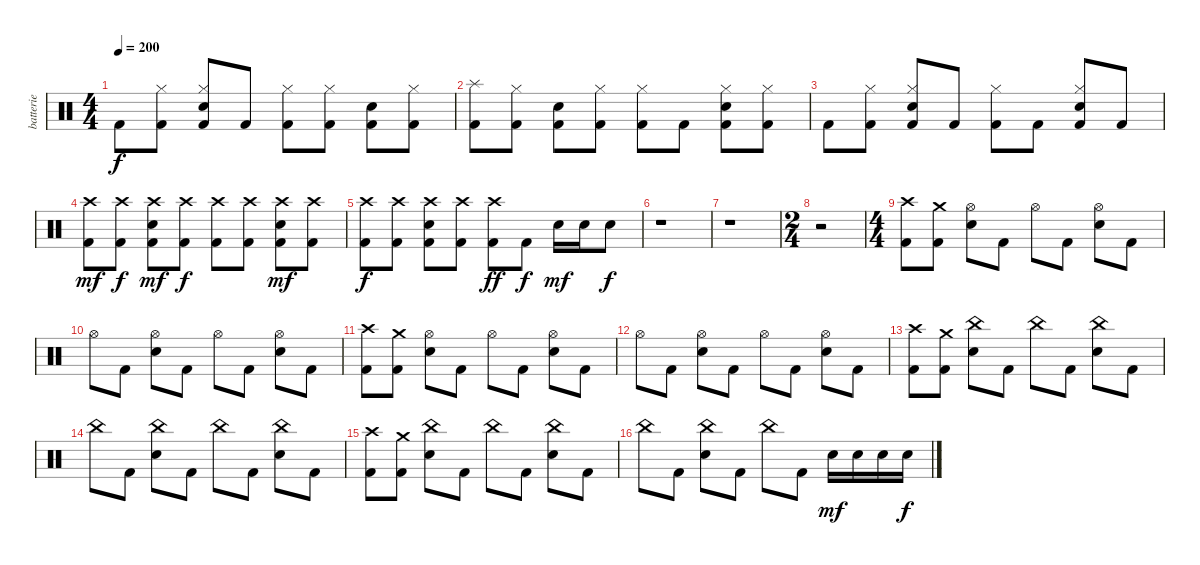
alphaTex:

\track ("batterie" "batterie") {instrument percussion}
\staff {score}
\articulation defaults
\ts (4 4)
\tempo 200
\clef neutral
\ks c "Kick (hit) 2".8{dy f}
("Kick (hit) 2" "Hi-Hat (closed)").8 ("Kick (hit) 2" "Electric Snare (hit)" "Hi-Hat (closed)").8 "Kick (hit) 2".8 ("Kick (hit) 2" "Hi-Hat (closed)").8 ("Kick (hit) 2" "Hi-Hat (closed)").8 ("Kick (hit) 2" "Electric Snare (hit)").8 ("Kick (hit) 2" "Hi-Hat (closed)").8 |
("Kick (hit) 2" "Splash (hit)").8 ("Kick (hit) 2" "Hi-Hat (closed)").8 ("Kick (hit) 2" "Electric Snare (hit)").8 ("Kick (hit) 2" "Hi-Hat (closed)").8 ("Kick (hit) 2" "Hi-Hat (closed)").8 "Kick (hit) 2".8 ("Kick (hit) 2" "Electric Snare (hit)" "Hi-Hat (closed)").8 ("Kick (hit) 2" "Hi-Hat (closed)").8 |
"Kick (hit) 2".8 ("Kick (hit) 2" "Hi-Hat (closed)").8 ("Kick (hit) 2" "Electric Snare (hit)" "Hi-Hat (closed)").8 "Kick (hit) 2".8 ("Kick (hit) 2" "Hi-Hat (closed)").8 "Kick (hit) 2".8 ("Kick (hit) 2" "Electric Snare (hit)" "Hi-Hat (closed)").8 "Kick (hit) 2".8 |
("Kick (hit) 2" "Crash high (hit)").8{dy mf} ("Kick (hit) 2" "Crash high (hit)").8{dy f} ("Kick (hit) 2" "Electric Snare (hit)" "Crash high (hit)").8{dy mf} ("Kick (hit) 2" "Crash high (hit)").8{dy f} ("Kick (hit) 2" "Crash high (hit)").8 ("Kick (hit) 2" "Crash high (hit)").8 ("Kick (hit) 2" "Electric Snare (hit)" "Crash high (hit)").8{dy mf} ("Kick (hit) 2" "Crash high (hit)").8 |
("Kick (hit) 2" "Crash high (hit)").8{dy f} ("Kick (hit) 2" "Crash high (hit)").8 ("Kick (hit) 2" "Electric Snare (hit)" "Crash high (hit)").8 ("Kick (hit) 2" "Crash high (hit)").8 ("Kick (hit) 2" "Crash high (hit)").8{dy ff} "Kick (hit) 2".8{dy f} "Electric Snare (hit)".16{dy mf} "Electric Snare (hit)".16 "Electric Snare (hit)".8{dy f} |
r.1 |
r.1 |
\ts (2 4)
r.2 |
\ts (4 4)
("Kick (hit) 2" "Crash high (hit)").8 ("Kick (hit) 2" "Crash medium (hit)").8 ("Electric Snare (hit)" "Hi-Hat (open)").8 "Kick (hit) 2".8 "Hi-Hat (open)".8 "Kick (hit) 2".8 ("Electric Snare (hit)" "Hi-Hat (open)").8 "Kick (hit) 2".8 |
"Hi-Hat (open)".8 "Kick (hit) 2".8 ("Electric Snare (hit)" "Hi-Hat (open)").8 "Kick (hit) 2".8 "Hi-Hat (open)".8 "Kick (hit) 2".8 ("Electric Snare (hit)" "Hi-Hat (open)").8 "Kick (hit) 2".8 |
("Kick (hit) 2" "Crash high (hit)").8 ("Kick (hit) 2" "Crash medium (hit)").8 ("Electric Snare (hit)" "Hi-Hat (open)").8 "Kick (hit) 2".8 "Hi-Hat (open)".8 "Kick (hit) 2".8 ("Electric Snare (hit)" "Hi-Hat (open)").8 "Kick (hit) 2".8 |
"Hi-Hat (open)".8 "Kick (hit) 2".8 ("Electric Snare (hit)" "Hi-Hat (open)").8 "Kick (hit) 2".8 "Hi-Hat (open)".8 "Kick (hit) 2".8 ("Electric Snare (hit)" "Hi-Hat (open)").8 "Kick (hit) 2".8 |
("Kick (hit) 2" "Crash high (hit)").8 ("Kick (hit) 2" "Crash medium (hit)").8 ("Electric Snare (hit)" "China (hit)").8 "Kick (hit) 2".8 "China (hit)".8 "Kick (hit) 2".8 ("Electric Snare (hit)" "China (hit)").8 "Kick (hit) 2".8 |
"China (hit)".8 "Kick (hit) 2".8 ("Electric Snare (hit)" "China (hit)").8 "Kick (hit) 2".8 "China (hit)".8 "Kick (hit) 2".8 ("Electric Snare (hit)" "China (hit)").8 "Kick (hit) 2".8 |
("Kick (hit) 2" "Crash high (hit)").8 ("Kick (hit) 2" "Crash medium (hit)").8 ("Electric Snare (hit)" "China (hit)").8 "Kick (hit) 2".8 "China (hit)".8 "Kick (hit) 2".8 ("Electric Snare (hit)" "China (hit)").8 "Kick (hit) 2".8 |
"China (hit)".8 "Kick (hit) 2".8 ("Electric Snare (hit)" "China (hit)").8 "Kick (hit) 2".8 "China (hit)".8 "Kick (hit) 2".8 "Electric Snare (hit)".16{dy mf} "Electric Snare (hit)".16 "Electric Snare (hit)".16 "Electric Snare (hit)".16{dy f}
